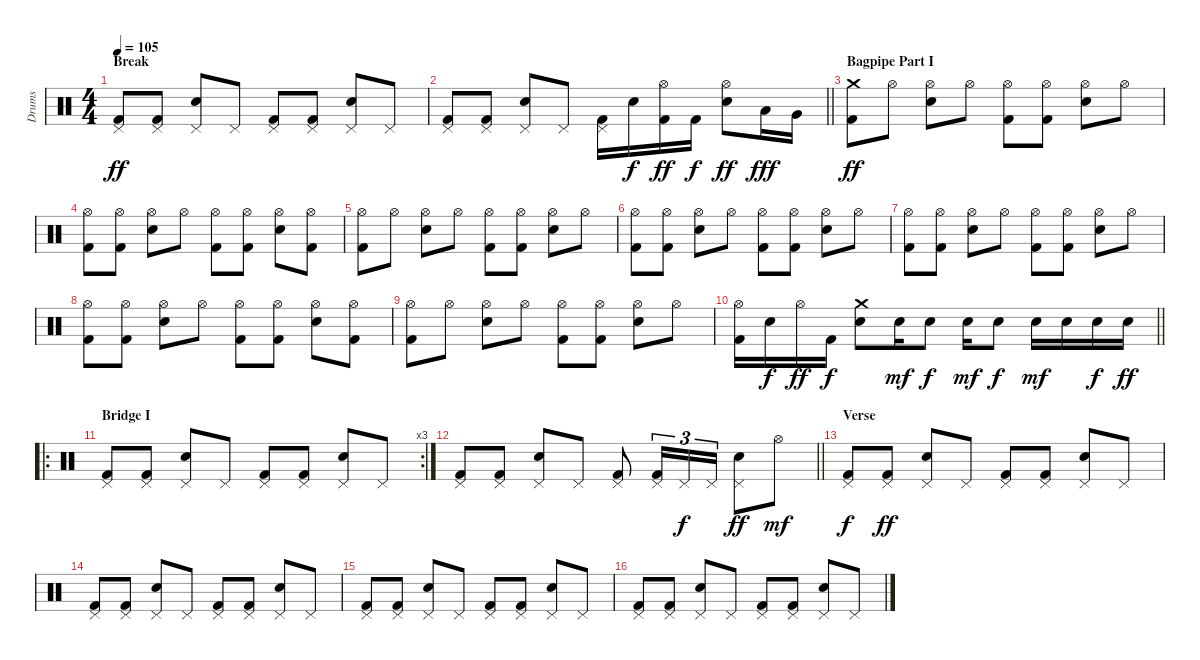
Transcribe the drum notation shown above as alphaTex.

\track ("Drums" "Drums") {instrument percussion}
\staff {score}
\articulation defaults
\ts (4 4)
\section ("" "Break")
\tempo 105
\clef neutral
\ks c
("Pedal Hi-Hat (hit)" "Kick (hit) 2").8{dy ff} ("Pedal Hi-Hat (hit)" "Kick (hit) 2").8 ("Pedal Hi-Hat (hit)" "Electric Snare (hit)").8 "Pedal Hi-Hat (hit)".8 ("Pedal Hi-Hat (hit)" "Kick (hit) 2").8 ("Pedal Hi-Hat (hit)" "Kick (hit) 2").8 ("Pedal Hi-Hat (hit)" "Electric Snare (hit)").8 "Pedal Hi-Hat (hit)".8 |
\barLineRight lightlight
("Pedal Hi-Hat (hit)" "Kick (hit) 2").8 ("Pedal Hi-Hat (hit)" "Kick (hit) 2").8 ("Pedal Hi-Hat (hit)" "Electric Snare (hit)").8 "Pedal Hi-Hat (hit)".8 ("Pedal Hi-Hat (hit)" "Kick (hit) 2").16 "Electric Snare (hit)".16{dy f} ("Hi-Hat (open)" "Kick (hit) 2").16{dy ff} "Kick (hit) 2".16{dy f} ("Hi-Hat (open)" "Electric Snare (hit)").8{dy ff} "Low Tom (hit)".16{dy fff} "Very Low Tom (hit)".16 |
\section ("" "Bagpipe Part I")
("Crash medium (hit)" "Kick (hit) 2").8{dy ff} "Hi-Hat (open)".8 ("Hi-Hat (open)" "Electric Snare (hit)").8 "Hi-Hat (open)".8 ("Hi-Hat (open)" "Kick (hit) 2").8 ("Hi-Hat (open)" "Kick (hit) 2").8 ("Hi-Hat (open)" "Electric Snare (hit)").8 "Hi-Hat (open)".8 |
("Hi-Hat (open)" "Kick (hit) 2").8 ("Hi-Hat (open)" "Kick (hit) 2").8 ("Hi-Hat (open)" "Electric Snare (hit)").8 "Hi-Hat (open)".8 ("Hi-Hat (open)" "Kick (hit) 2").8 ("Hi-Hat (open)" "Kick (hit) 2").8 ("Hi-Hat (open)" "Electric Snare (hit)").8 ("Hi-Hat (open)" "Kick (hit) 2").8 |
("Hi-Hat (open)" "Kick (hit) 2").8 "Hi-Hat (open)".8 ("Hi-Hat (open)" "Electric Snare (hit)").8 "Hi-Hat (open)".8 ("Hi-Hat (open)" "Kick (hit) 2").8 ("Hi-Hat (open)" "Kick (hit) 2").8 ("Hi-Hat (open)" "Electric Snare (hit)").8 "Hi-Hat (open)".8 |
("Hi-Hat (open)" "Kick (hit) 2").8 ("Hi-Hat (open)" "Kick (hit) 2").8 ("Hi-Hat (open)" "Electric Snare (hit)").8 "Hi-Hat (open)".8 ("Hi-Hat (open)" "Kick (hit) 2").8 ("Hi-Hat (open)" "Kick (hit) 2").8 ("Hi-Hat (open)" "Electric Snare (hit)").8 "Hi-Hat (open)".8 |
("Hi-Hat (open)" "Kick (hit) 2").8 ("Hi-Hat (open)" "Kick (hit) 2").8 ("Hi-Hat (open)" "Electric Snare (hit)").8 "Hi-Hat (open)".8 ("Hi-Hat (open)" "Kick (hit) 2").8 ("Hi-Hat (open)" "Kick (hit) 2").8 ("Hi-Hat (open)" "Electric Snare (hit)").8 "Hi-Hat (open)".8 |
("Hi-Hat (open)" "Kick (hit) 2").8 ("Hi-Hat (open)" "Kick (hit) 2").8 ("Hi-Hat (open)" "Electric Snare (hit)").8 "Hi-Hat (open)".8 ("Hi-Hat (open)" "Kick (hit) 2").8 ("Hi-Hat (open)" "Kick (hit) 2").8 ("Hi-Hat (open)" "Electric Snare (hit)").8 ("Hi-Hat (open)" "Kick (hit) 2").8 |
("Hi-Hat (open)" "Kick (hit) 2").8 "Hi-Hat (open)".8 ("Hi-Hat (open)" "Electric Snare (hit)").8 "Hi-Hat (open)".8 ("Hi-Hat (open)" "Kick (hit) 2").8 ("Hi-Hat (open)" "Kick (hit) 2").8 ("Hi-Hat (open)" "Electric Snare (hit)").8 "Hi-Hat (open)".8 |
\barLineRight lightlight
("Hi-Hat (open)" "Kick (hit) 2").16 "Electric Snare (hit)".16{dy f} "Hi-Hat (open)".16{dy ff} "Kick (hit) 2".16{dy f} ("Crash medium (hit)" "Electric Snare (hit)").8 "Electric Snare (hit)".16{dy mf} "Electric Snare (hit)".8{dy f} "Electric Snare (hit)".16{dy mf} "Electric Snare (hit)".8{dy f} "Electric Snare (hit)".16{dy mf} "Electric Snare (hit)".16 "Electric Snare (hit)".16{dy f} "Electric Snare (hit)".16{dy ff} |
\ro
\rc 3
\section ("" "Bridge I")
("Pedal Hi-Hat (hit)" "Kick (hit) 2").8 ("Pedal Hi-Hat (hit)" "Kick (hit) 2").8 ("Pedal Hi-Hat (hit)" "Electric Snare (hit)").8 "Pedal Hi-Hat (hit)".8 ("Pedal Hi-Hat (hit)" "Kick (hit) 2").8 ("Pedal Hi-Hat (hit)" "Kick (hit) 2").8 ("Pedal Hi-Hat (hit)" "Electric Snare (hit)").8 "Pedal Hi-Hat (hit)".8 |
\barLineRight lightlight
("Pedal Hi-Hat (hit)" "Kick (hit) 2").8 ("Pedal Hi-Hat (hit)" "Kick (hit) 2").8 ("Pedal Hi-Hat (hit)" "Electric Snare (hit)").8 "Pedal Hi-Hat (hit)".8 ("Pedal Hi-Hat (hit)" "Kick (hit) 2").8 ("Pedal Hi-Hat (hit)" "Kick (hit) 2").16{tu (3 2)} "Pedal Hi-Hat (hit)".16{tu (3 2) dy f} "Pedal Hi-Hat (hit)".16{tu (3 2)} ("Pedal Hi-Hat (hit)" "Electric Snare (hit)").8{dy ff} "Hi-Hat (open)".8{dy mf} |
\section ("" "Verse")
("Pedal Hi-Hat (hit)" "Kick (hit) 2").8{dy f} ("Pedal Hi-Hat (hit)" "Kick (hit) 2").8{dy ff} ("Pedal Hi-Hat (hit)" "Electric Snare (hit)").8 "Pedal Hi-Hat (hit)".8 ("Pedal Hi-Hat (hit)" "Kick (hit) 2").8 ("Pedal Hi-Hat (hit)" "Kick (hit) 2").8 ("Pedal Hi-Hat (hit)" "Electric Snare (hit)").8 "Pedal Hi-Hat (hit)".8 |
("Pedal Hi-Hat (hit)" "Kick (hit) 2").8 ("Pedal Hi-Hat (hit)" "Kick (hit) 2").8 ("Pedal Hi-Hat (hit)" "Electric Snare (hit)").8 "Pedal Hi-Hat (hit)".8 ("Pedal Hi-Hat (hit)" "Kick (hit) 2").8 ("Pedal Hi-Hat (hit)" "Kick (hit) 2").8 ("Pedal Hi-Hat (hit)" "Electric Snare (hit)").8 "Pedal Hi-Hat (hit)".8 |
("Pedal Hi-Hat (hit)" "Kick (hit) 2").8 ("Pedal Hi-Hat (hit)" "Kick (hit) 2").8 ("Pedal Hi-Hat (hit)" "Electric Snare (hit)").8 "Pedal Hi-Hat (hit)".8 ("Pedal Hi-Hat (hit)" "Kick (hit) 2").8 ("Pedal Hi-Hat (hit)" "Kick (hit) 2").8 ("Pedal Hi-Hat (hit)" "Electric Snare (hit)").8 "Pedal Hi-Hat (hit)".8 |
("Pedal Hi-Hat (hit)" "Kick (hit) 2").8 ("Pedal Hi-Hat (hit)" "Kick (hit) 2").8 ("Pedal Hi-Hat (hit)" "Electric Snare (hit)").8 "Pedal Hi-Hat (hit)".8 ("Pedal Hi-Hat (hit)" "Kick (hit) 2").8 ("Pedal Hi-Hat (hit)" "Kick (hit) 2").8 ("Pedal Hi-Hat (hit)" "Electric Snare (hit)").8 "Pedal Hi-Hat (hit)".8
